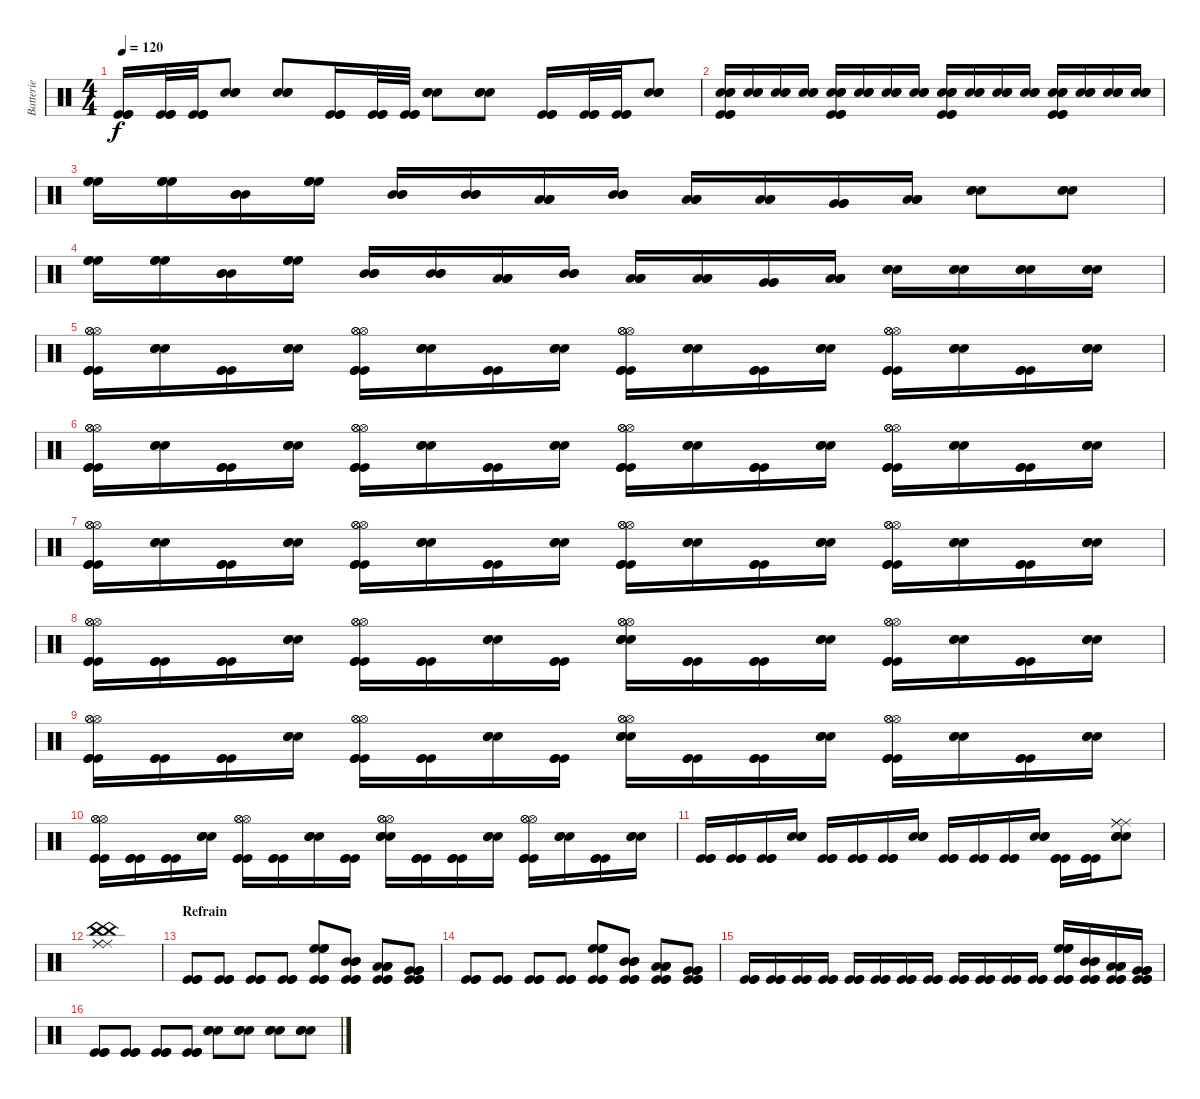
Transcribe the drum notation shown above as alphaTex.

\track ("Batterie" "Batterie") {instrument percussion}
\staff {score}
\articulation defaults
\ts (4 4)
\tempo 120
\clef neutral
\ks c
("Kick (hit)" "Kick (hit)" "Kick (hit)").16{dy f} ("Kick (hit)" "Kick (hit)" "Kick (hit)").32 ("Kick (hit)" "Kick (hit)" "Kick (hit)").32 ("Snare (hit) 2" "Snare (hit) 2" "Snare (hit) 2").8 ("Snare (hit) 2" "Snare (hit) 2" "Snare (hit) 2").8 ("Kick (hit)" "Kick (hit)" "Kick (hit)").16 ("Kick (hit)" "Kick (hit)" "Kick (hit)").32 ("Kick (hit)" "Kick (hit)" "Kick (hit)").32 ("Snare (hit) 2" "Snare (hit) 2" "Snare (hit) 2").8 ("Snare (hit) 2" "Snare (hit) 2" "Snare (hit) 2").8 ("Kick (hit)" "Kick (hit)" "Kick (hit)").16 ("Kick (hit)" "Kick (hit)" "Kick (hit)").32 ("Kick (hit)" "Kick (hit)" "Kick (hit)").32 ("Snare (hit) 2" "Snare (hit) 2" "Snare (hit) 2").8 |
("Kick (hit)" "Kick (hit)" "Kick (hit)" "Snare (hit) 2" "Snare (hit) 2" "Snare (hit) 2").16 ("Snare (hit) 2" "Snare (hit) 2" "Snare (hit) 2").16 ("Snare (hit) 2" "Snare (hit) 2" "Snare (hit) 2").16 ("Snare (hit) 2" "Snare (hit) 2" "Snare (hit) 2").16 ("Snare (hit) 2" "Snare (hit) 2" "Kick (hit)" "Kick (hit)" "Kick (hit)" "Snare (hit) 2").16 ("Snare (hit) 2" "Snare (hit) 2" "Snare (hit) 2").16 ("Snare (hit) 2" "Snare (hit) 2" "Snare (hit) 2").16 ("Snare (hit) 2" "Snare (hit) 2" "Snare (hit) 2").16 ("Snare (hit) 2" "Snare (hit) 2" "Snare (hit) 2" "Kick (hit)" "Kick (hit)" "Kick (hit)").16 ("Snare (hit) 2" "Snare (hit) 2" "Snare (hit) 2").16 ("Snare (hit) 2" "Snare (hit) 2" "Snare (hit) 2").16 ("Snare (hit) 2" "Snare (hit) 2" "Snare (hit) 2").16 ("Kick (hit)" "Kick (hit)" "Kick (hit)" "Snare (hit) 2" "Snare (hit) 2" "Snare (hit) 2").16 ("Snare (hit) 2" "Snare (hit) 2" "Snare (hit) 2").16 ("Snare (hit) 2" "Snare (hit) 2" "Snare (hit) 2").16 ("Snare (hit) 2" "Snare (hit) 2" "Snare (hit) 2" "Snare (hit) 2").16 |
("High Floor Tom (hit)" "High Floor Tom (hit)" "High Floor Tom (hit)").16 ("High Floor Tom (hit)" "High Floor Tom (hit)" "High Floor Tom (hit)").16 ("Mid Tom (hit)" "Mid Tom (hit)" "Mid Tom (hit)").16 ("High Floor Tom (hit)" "High Floor Tom (hit)" "High Floor Tom (hit)").16 ("Mid Tom (hit)" "Mid Tom (hit)" "Mid Tom (hit)").16 ("Mid Tom (hit)" "Mid Tom (hit)" "Mid Tom (hit)").16 ("Low Tom (hit)" "Low Tom (hit)" "Low Tom (hit)").16 ("Mid Tom (hit)" "Mid Tom (hit)" "Mid Tom (hit)").16 ("Low Tom (hit)" "Low Tom (hit)" "Low Tom (hit)").16 ("Low Tom (hit)" "Low Tom (hit)" "Low Tom (hit)").16 ("Very Low Tom (hit)" "Very Low Tom (hit)" "Very Low Tom (hit)").16 ("Low Tom (hit)" "Low Tom (hit)" "Low Tom (hit)").16 ("Snare (hit) 2" "Snare (hit) 2" "Snare (hit) 2").8 ("Snare (hit) 2" "Snare (hit) 2" "Snare (hit) 2").8 |
("High Floor Tom (hit)" "High Floor Tom (hit)" "High Floor Tom (hit)").16 ("High Floor Tom (hit)" "High Floor Tom (hit)" "High Floor Tom (hit)").16 ("Mid Tom (hit)" "Mid Tom (hit)" "Mid Tom (hit)").16 ("High Floor Tom (hit)" "High Floor Tom (hit)" "High Floor Tom (hit)").16 ("Mid Tom (hit)" "Mid Tom (hit)" "Mid Tom (hit)").16 ("Mid Tom (hit)" "Mid Tom (hit)" "Mid Tom (hit)").16 ("Low Tom (hit)" "Low Tom (hit)" "Low Tom (hit)").16 ("Mid Tom (hit)" "Mid Tom (hit)" "Mid Tom (hit)").16 ("Low Tom (hit)" "Low Tom (hit)" "Low Tom (hit)").16 ("Low Tom (hit)" "Low Tom (hit)" "Low Tom (hit)").16 ("Very Low Tom (hit)" "Very Low Tom (hit)" "Very Low Tom (hit)").16 ("Low Tom (hit)" "Low Tom (hit)" "Low Tom (hit)").16 ("Snare (hit) 2" "Snare (hit) 2" "Snare (hit) 2").16 ("Snare (hit) 2" "Snare (hit) 2" "Snare (hit) 2").16 ("Snare (hit) 2" "Snare (hit) 2" "Snare (hit) 2").16 ("Snare (hit) 2" "Snare (hit) 2" "Snare (hit) 2").16 |
("Hi-Hat (open)" "Hi-Hat (open)" "Hi-Hat (open)" "Kick (hit)" "Kick (hit)" "Kick (hit)").16 ("Snare (hit) 2" "Snare (hit) 2" "Snare (hit) 2").16 ("Kick (hit)" "Kick (hit)" "Kick (hit)").16 ("Snare (hit) 2" "Snare (hit) 2" "Snare (hit) 2").16 ("Hi-Hat (open)" "Hi-Hat (open)" "Hi-Hat (open)" "Kick (hit)" "Kick (hit)" "Kick (hit)").16 ("Snare (hit) 2" "Snare (hit) 2" "Snare (hit) 2").16 ("Kick (hit)" "Kick (hit)" "Kick (hit)").16 ("Snare (hit) 2" "Snare (hit) 2" "Snare (hit) 2").16 ("Kick (hit)" "Kick (hit)" "Kick (hit)" "Hi-Hat (open)" "Hi-Hat (open)" "Hi-Hat (open)").16 ("Snare (hit) 2" "Snare (hit) 2" "Snare (hit) 2").16 ("Kick (hit)" "Kick (hit)" "Kick (hit)").16 ("Snare (hit) 2" "Snare (hit) 2" "Snare (hit) 2").16 ("Kick (hit)" "Hi-Hat (open)" "Hi-Hat (open)" "Hi-Hat (open)" "Kick (hit)" "Kick (hit)").16 ("Snare (hit) 2" "Snare (hit) 2" "Snare (hit) 2").16 ("Kick (hit)" "Kick (hit)" "Kick (hit)").16 ("Snare (hit) 2" "Snare (hit) 2" "Snare (hit) 2").16 |
("Hi-Hat (open)" "Hi-Hat (open)" "Hi-Hat (open)" "Kick (hit)" "Kick (hit)" "Kick (hit)").16 ("Snare (hit) 2" "Snare (hit) 2" "Snare (hit) 2").16 ("Kick (hit)" "Kick (hit)" "Kick (hit)").16 ("Snare (hit) 2" "Snare (hit) 2" "Snare (hit) 2").16 ("Hi-Hat (open)" "Hi-Hat (open)" "Hi-Hat (open)" "Kick (hit)" "Kick (hit)" "Kick (hit)").16 ("Snare (hit) 2" "Snare (hit) 2" "Snare (hit) 2").16 ("Kick (hit)" "Kick (hit)" "Kick (hit)").16 ("Snare (hit) 2" "Snare (hit) 2" "Snare (hit) 2").16 ("Kick (hit)" "Kick (hit)" "Kick (hit)" "Hi-Hat (open)" "Hi-Hat (open)" "Hi-Hat (open)").16 ("Snare (hit) 2" "Snare (hit) 2" "Snare (hit) 2").16 ("Kick (hit)" "Kick (hit)" "Kick (hit)").16 ("Snare (hit) 2" "Snare (hit) 2" "Snare (hit) 2").16 ("Kick (hit)" "Hi-Hat (open)" "Hi-Hat (open)" "Hi-Hat (open)" "Kick (hit)" "Kick (hit)").16 ("Snare (hit) 2" "Snare (hit) 2" "Snare (hit) 2").16 ("Kick (hit)" "Kick (hit)" "Kick (hit)").16 ("Snare (hit) 2" "Snare (hit) 2" "Snare (hit) 2").16 |
("Hi-Hat (open)" "Hi-Hat (open)" "Hi-Hat (open)" "Kick (hit)" "Kick (hit)" "Kick (hit)").16 ("Snare (hit) 2" "Snare (hit) 2" "Snare (hit) 2").16 ("Kick (hit)" "Kick (hit)" "Kick (hit)").16 ("Snare (hit) 2" "Snare (hit) 2" "Snare (hit) 2").16 ("Hi-Hat (open)" "Hi-Hat (open)" "Hi-Hat (open)" "Kick (hit)" "Kick (hit)" "Kick (hit)").16 ("Snare (hit) 2" "Snare (hit) 2" "Snare (hit) 2").16 ("Kick (hit)" "Kick (hit)" "Kick (hit)").16 ("Snare (hit) 2" "Snare (hit) 2" "Snare (hit) 2").16 ("Kick (hit)" "Kick (hit)" "Kick (hit)" "Hi-Hat (open)" "Hi-Hat (open)" "Hi-Hat (open)").16 ("Snare (hit) 2" "Snare (hit) 2" "Snare (hit) 2").16 ("Kick (hit)" "Kick (hit)" "Kick (hit)").16 ("Snare (hit) 2" "Snare (hit) 2" "Snare (hit) 2").16 ("Kick (hit)" "Hi-Hat (open)" "Hi-Hat (open)" "Hi-Hat (open)" "Kick (hit)" "Kick (hit)").16 ("Snare (hit) 2" "Snare (hit) 2" "Snare (hit) 2").16 ("Kick (hit)" "Kick (hit)" "Kick (hit)").16 ("Snare (hit) 2" "Snare (hit) 2" "Snare (hit) 2").16 |
("Hi-Hat (open)" "Hi-Hat (open)" "Hi-Hat (open)" "Kick (hit)" "Kick (hit)" "Kick (hit)").16 ("Kick (hit)" "Kick (hit)" "Kick (hit)").16 ("Kick (hit)" "Kick (hit)" "Kick (hit)").16 ("Snare (hit) 2" "Snare (hit) 2" "Snare (hit) 2").16 ("Hi-Hat (open)" "Hi-Hat (open)" "Hi-Hat (open)" "Kick (hit)" "Kick (hit)" "Kick (hit)").16 ("Kick (hit)" "Kick (hit)" "Kick (hit)").16 ("Snare (hit) 2" "Snare (hit) 2" "Snare (hit) 2").16 ("Kick (hit)" "Kick (hit)" "Kick (hit)").16 ("Snare (hit) 2" "Snare (hit) 2" "Snare (hit) 2" "Hi-Hat (open)" "Hi-Hat (open)" "Hi-Hat (open)").16 ("Kick (hit)" "Kick (hit)" "Kick (hit)").16 ("Kick (hit)" "Kick (hit)" "Kick (hit)").16 ("Snare (hit) 2" "Snare (hit) 2" "Snare (hit) 2").16 ("Kick (hit)" "Hi-Hat (open)" "Hi-Hat (open)" "Hi-Hat (open)" "Kick (hit)" "Kick (hit)").16 ("Snare (hit) 2" "Snare (hit) 2" "Snare (hit) 2").16 ("Kick (hit)" "Kick (hit)" "Kick (hit)").16 ("Snare (hit) 2" "Snare (hit) 2" "Snare (hit) 2").16 |
("Hi-Hat (open)" "Hi-Hat (open)" "Hi-Hat (open)" "Kick (hit)" "Kick (hit)" "Kick (hit)").16 ("Kick (hit)" "Kick (hit)" "Kick (hit)").16 ("Kick (hit)" "Kick (hit)" "Kick (hit)").16 ("Snare (hit) 2" "Snare (hit) 2" "Snare (hit) 2").16 ("Hi-Hat (open)" "Hi-Hat (open)" "Hi-Hat (open)" "Kick (hit)" "Kick (hit)" "Kick (hit)").16 ("Kick (hit)" "Kick (hit)" "Kick (hit)").16 ("Snare (hit) 2" "Snare (hit) 2" "Snare (hit) 2").16 ("Kick (hit)" "Kick (hit)" "Kick (hit)").16 ("Snare (hit) 2" "Snare (hit) 2" "Snare (hit) 2" "Hi-Hat (open)" "Hi-Hat (open)" "Hi-Hat (open)").16 ("Kick (hit)" "Kick (hit)" "Kick (hit)").16 ("Kick (hit)" "Kick (hit)" "Kick (hit)").16 ("Snare (hit) 2" "Snare (hit) 2" "Snare (hit) 2").16 ("Kick (hit)" "Hi-Hat (open)" "Hi-Hat (open)" "Hi-Hat (open)" "Kick (hit)" "Kick (hit)").16 ("Snare (hit) 2" "Snare (hit) 2" "Snare (hit) 2").16 ("Kick (hit)" "Kick (hit)" "Kick (hit)").16 ("Snare (hit) 2" "Snare (hit) 2" "Snare (hit) 2").16 |
("Hi-Hat (open)" "Hi-Hat (open)" "Hi-Hat (open)" "Kick (hit)" "Kick (hit)" "Kick (hit)").16 ("Kick (hit)" "Kick (hit)" "Kick (hit)").16 ("Kick (hit)" "Kick (hit)" "Kick (hit)").16 ("Snare (hit) 2" "Snare (hit) 2" "Snare (hit) 2").16 ("Hi-Hat (open)" "Hi-Hat (open)" "Hi-Hat (open)" "Kick (hit)" "Kick (hit)" "Kick (hit)").16 ("Kick (hit)" "Kick (hit)" "Kick (hit)").16 ("Snare (hit) 2" "Snare (hit) 2" "Snare (hit) 2").16 ("Kick (hit)" "Kick (hit)" "Kick (hit)").16 ("Snare (hit) 2" "Snare (hit) 2" "Snare (hit) 2" "Hi-Hat (open)" "Hi-Hat (open)" "Hi-Hat (open)").16 ("Kick (hit)" "Kick (hit)" "Kick (hit)").16 ("Kick (hit)" "Kick (hit)" "Kick (hit)").16 ("Snare (hit) 2" "Snare (hit) 2" "Snare (hit) 2").16 ("Kick (hit)" "Hi-Hat (open)" "Hi-Hat (open)" "Hi-Hat (open)" "Kick (hit)" "Kick (hit)").16 ("Snare (hit) 2" "Snare (hit) 2" "Snare (hit) 2").16 ("Kick (hit)" "Kick (hit)" "Kick (hit)").16 ("Snare (hit) 2" "Snare (hit) 2" "Snare (hit) 2").16 |
("Kick (hit)" "Kick (hit)" "Kick (hit)").16 ("Kick (hit)" "Kick (hit)" "Kick (hit)").16 ("Kick (hit)" "Kick (hit)" "Kick (hit)").16 ("Snare (hit) 2" "Snare (hit) 2" "Snare (hit) 2").16 ("Kick (hit)" "Kick (hit)" "Kick (hit)").16 ("Kick (hit)" "Kick (hit)" "Kick (hit)").16 ("Kick (hit)" "Kick (hit)" "Kick (hit)").16 ("Snare (hit) 2" "Snare (hit) 2" "Snare (hit) 2").16 ("Kick (hit)" "Kick (hit)" "Kick (hit)").16 ("Kick (hit)" "Kick (hit)" "Kick (hit)").16 ("Kick (hit)" "Kick (hit)" "Kick (hit)").16 ("Snare (hit) 2" "Snare (hit) 2" "Snare (hit) 2").16 ("Kick (hit)" "Kick (hit)" "Kick (hit)").16 ("Kick (hit)" "Kick (hit)" "Kick (hit)").16 ("Ride (middle)" "Ride (middle)" "Snare (hit) 2" "Snare (hit) 2" "Snare (hit) 2" "Ride (middle)").8 |
("Ride (middle)" "Ride (middle)" "Ride (middle)" "China (hit)" "China (hit)" "China (hit)").1 |
\section ("" "Refrain")
("Kick (hit)" "Kick (hit)" "Kick (hit)").8 ("Kick (hit)" "Kick (hit)" "Kick (hit)").8 ("Kick (hit)" "Kick (hit)" "Kick (hit)").8 ("Kick (hit)" "Kick (hit)" "Kick (hit)").8 ("High Floor Tom (hit)" "High Floor Tom (hit)" "High Floor Tom (hit)" "Kick (hit)" "Kick (hit)" "Kick (hit)").8 ("Mid Tom (hit)" "Mid Tom (hit)" "Mid Tom (hit)" "Kick (hit)" "Kick (hit)" "Kick (hit)").8 ("Low Tom (hit)" "Low Tom (hit)" "Low Tom (hit)" "Kick (hit)" "Kick (hit)" "Kick (hit)").8 ("Very Low Tom (hit)" "Very Low Tom (hit)" "Very Low Tom (hit)" "Kick (hit)" "Kick (hit)" "Kick (hit)").8 |
("Kick (hit)" "Kick (hit)" "Kick (hit)").8 ("Kick (hit)" "Kick (hit)" "Kick (hit)").8 ("Kick (hit)" "Kick (hit)" "Kick (hit)").8 ("Kick (hit)" "Kick (hit)" "Kick (hit)").8 ("High Floor Tom (hit)" "High Floor Tom (hit)" "High Floor Tom (hit)" "Kick (hit)" "Kick (hit)" "Kick (hit)").8 ("Mid Tom (hit)" "Mid Tom (hit)" "Mid Tom (hit)" "Kick (hit)" "Kick (hit)" "Kick (hit)").8 ("Low Tom (hit)" "Low Tom (hit)" "Low Tom (hit)" "Kick (hit)" "Kick (hit)" "Kick (hit)").8 ("Very Low Tom (hit)" "Very Low Tom (hit)" "Very Low Tom (hit)" "Kick (hit)" "Kick (hit)" "Kick (hit)").8 |
("Kick (hit)" "Kick (hit)" "Kick (hit)").16 ("Kick (hit)" "Kick (hit)" "Kick (hit)").16 ("Kick (hit)" "Kick (hit)" "Kick (hit)").16 ("Kick (hit)" "Kick (hit)" "Kick (hit)").16 ("Kick (hit)" "Kick (hit)" "Kick (hit)").16 ("Kick (hit)" "Kick (hit)" "Kick (hit)").16 ("Kick (hit)" "Kick (hit)" "Kick (hit)").16 ("Kick (hit)" "Kick (hit)" "Kick (hit)").16 ("Kick (hit)" "Kick (hit)" "Kick (hit)").16 ("Kick (hit)" "Kick (hit)" "Kick (hit)").16 ("Kick (hit)" "Kick (hit)" "Kick (hit)").16 ("Kick (hit)" "Kick (hit)" "Kick (hit)").16 ("High Floor Tom (hit)" "High Floor Tom (hit)" "Kick (hit)" "Kick (hit)" "Kick (hit)" "High Floor Tom (hit)").16 ("Mid Tom (hit)" "Mid Tom (hit)" "Kick (hit)" "Kick (hit)" "Kick (hit)" "Mid Tom (hit)").16 ("Low Tom (hit)" "Low Tom (hit)" "Kick (hit)" "Kick (hit)" "Kick (hit)" "Low Tom (hit)").16 ("Kick (hit)" "Kick (hit)" "Kick (hit)" "Very Low Tom (hit)" "Very Low Tom (hit)" "Very Low Tom (hit)").16 |
("Kick (hit)" "Kick (hit)" "Kick (hit)").8 ("Kick (hit)" "Kick (hit)" "Kick (hit)").8 ("Kick (hit)" "Kick (hit)" "Kick (hit)").8 ("Kick (hit)" "Kick (hit)" "Kick (hit)").8 ("Snare (hit) 2" "Snare (hit) 2" "Snare (hit) 2").8 ("Snare (hit) 2" "Snare (hit) 2" "Snare (hit) 2").8 ("Snare (hit) 2" "Snare (hit) 2" "Snare (hit) 2").8 ("Snare (hit) 2" "Snare (hit) 2" "Snare (hit) 2").8
